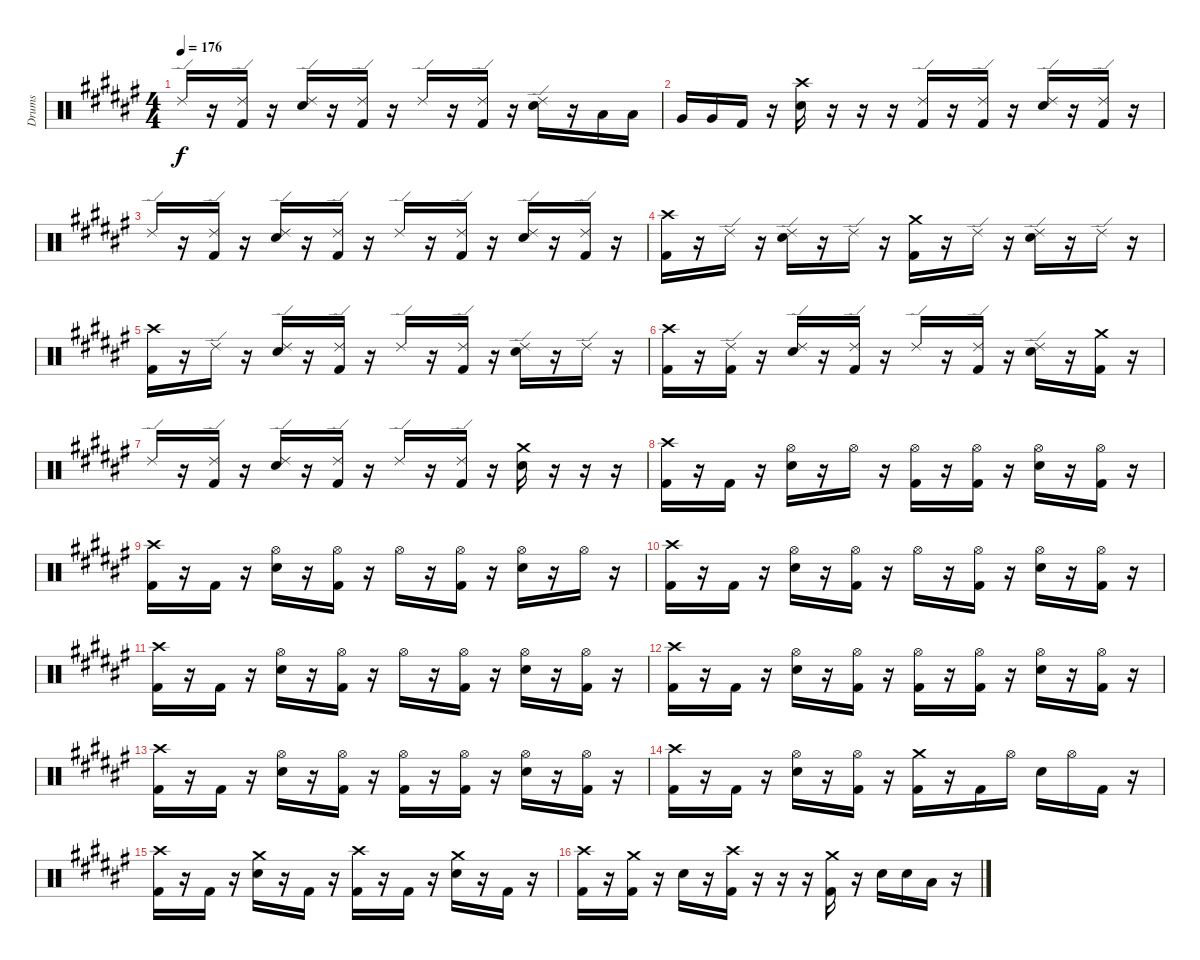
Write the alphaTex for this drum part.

\track ("Drums" "Drums") {instrument percussion}
\staff {score}
\articulation defaults
\ts (4 4)
\tempo 176
\clef neutral
\ks f# "Ride (edge) 2".16{dy f}
r.16 ("Ride (edge) 2" "Kick (hit) 2").16 r.16 ("Ride (edge) 2" "Electric Snare (hit)").16 r.16 ("Ride (edge) 2" "Kick (hit) 2").16 r.16 "Ride (edge) 2".16 r.16 ("Ride (edge) 2" "Kick (hit) 2").16 r.16 ("Ride (edge) 2" "Electric Snare (hit)").16 r.16 "Low Tom (hit)".16 "Low Tom (hit)".16 |
"Very Low Tom (hit)".16 "Very Low Tom (hit)".16 "Kick (hit) 2".16 r.16 ("Crash high (hit)" "Electric Snare (hit)").16 r.16 r.16 r.16 ("Ride (edge) 2" "Kick (hit) 2").16 r.16 ("Ride (edge) 2" "Kick (hit) 2").16 r.16 ("Ride (edge) 2" "Electric Snare (hit)").16 r.16 ("Ride (edge) 2" "Kick (hit) 2").16 r.16 |
"Ride (edge) 2".16 r.16 ("Ride (edge) 2" "Kick (hit) 2").16 r.16 ("Ride (edge) 2" "Electric Snare (hit)").16 r.16 ("Ride (edge) 2" "Kick (hit) 2").16 r.16 "Ride (edge) 2".16 r.16 ("Ride (edge) 2" "Kick (hit) 2").16 r.16 ("Ride (edge) 2" "Electric Snare (hit)").16 r.16 ("Ride (edge) 2" "Kick (hit) 2").16 r.16 |
("Crash high (hit)" "Kick (hit) 2").16 r.16 "Ride (edge) 2".16 r.16 ("Ride (edge) 2" "Electric Snare (hit)").16 r.16 "Ride (edge) 2".16 r.16 ("Crash medium (hit)" "Kick (hit) 2").16 r.16 "Ride (edge) 2".16 r.16 ("Ride (edge) 2" "Electric Snare (hit)").16 r.16 "Ride (edge) 2".16 r.16 |
("Crash high (hit)" "Kick (hit) 2").16 r.16 "Ride (edge) 2".16 r.16 ("Ride (edge) 2" "Electric Snare (hit)").16 r.16 ("Ride (edge) 2" "Kick (hit) 2").16 r.16 "Ride (edge) 2".16 r.16 ("Ride (edge) 2" "Kick (hit) 2").16 r.16 ("Ride (edge) 2" "Electric Snare (hit)").16 r.16 "Ride (edge) 2".16 r.16 |
("Crash high (hit)" "Kick (hit) 2").16 r.16 ("Ride (edge) 2" "Kick (hit) 2").16 r.16 ("Ride (edge) 2" "Electric Snare (hit)").16 r.16 ("Ride (edge) 2" "Kick (hit) 2").16 r.16 "Ride (edge) 2".16 r.16 ("Ride (edge) 2" "Kick (hit) 2").16 r.16 ("Ride (edge) 2" "Electric Snare (hit)").16 r.16 ("Crash medium (hit)" "Kick (hit) 2").16 r.16 |
"Ride (edge) 2".16 r.16 ("Ride (edge) 2" "Kick (hit) 2").16 r.16 ("Ride (edge) 2" "Electric Snare (hit)").16 r.16 ("Ride (edge) 2" "Kick (hit) 2").16 r.16 "Ride (edge) 2".16 r.16 ("Ride (edge) 2" "Kick (hit) 2").16 r.16 ("Crash medium (hit)" "Electric Snare (hit)").16 r.16 r.16 r.16 |
("Crash high (hit)" "Kick (hit) 2").16 r.16 "Kick (hit) 2".16 r.16 ("Hi-Hat (open)" "Electric Snare (hit)").16 r.16 "Hi-Hat (open)".16 r.16 ("Hi-Hat (open)" "Kick (hit) 2").16 r.16 ("Hi-Hat (open)" "Kick (hit) 2").16 r.16 ("Hi-Hat (open)" "Electric Snare (hit)").16 r.16 ("Hi-Hat (open)" "Kick (hit) 2").16 r.16 |
("Crash high (hit)" "Kick (hit) 2").16 r.16 "Kick (hit) 2".16 r.16 ("Hi-Hat (open)" "Electric Snare (hit)").16 r.16 ("Hi-Hat (open)" "Kick (hit) 2").16 r.16 "Hi-Hat (open)".16 r.16 ("Hi-Hat (open)" "Kick (hit) 2").16 r.16 ("Hi-Hat (open)" "Electric Snare (hit)").16 r.16 "Hi-Hat (open)".16 r.16 |
("Crash high (hit)" "Kick (hit) 2").16 r.16 "Kick (hit) 2".16 r.16 ("Hi-Hat (open)" "Electric Snare (hit)").16 r.16 ("Hi-Hat (open)" "Kick (hit) 2").16 r.16 "Hi-Hat (open)".16 r.16 ("Hi-Hat (open)" "Kick (hit) 2").16 r.16 ("Hi-Hat (open)" "Electric Snare (hit)").16 r.16 ("Hi-Hat (open)" "Kick (hit) 2").16 r.16 |
("Crash high (hit)" "Kick (hit) 2").16 r.16 "Kick (hit) 2".16 r.16 ("Hi-Hat (open)" "Electric Snare (hit)").16 r.16 ("Hi-Hat (open)" "Kick (hit) 2").16 r.16 "Hi-Hat (open)".16 r.16 ("Hi-Hat (open)" "Kick (hit) 2").16 r.16 ("Hi-Hat (open)" "Electric Snare (hit)").16 r.16 ("Hi-Hat (open)" "Kick (hit) 2").16 r.16 |
("Crash high (hit)" "Kick (hit) 2").16 r.16 "Kick (hit) 2".16 r.16 ("Hi-Hat (open)" "Electric Snare (hit)").16 r.16 ("Hi-Hat (open)" "Kick (hit) 2").16 r.16 ("Hi-Hat (open)" "Kick (hit) 2").16 r.16 ("Hi-Hat (open)" "Kick (hit) 2").16 r.16 ("Hi-Hat (open)" "Electric Snare (hit)").16 r.16 ("Hi-Hat (open)" "Kick (hit) 2").16 r.16 |
("Crash high (hit)" "Kick (hit) 2").16 r.16 "Kick (hit) 2".16 r.16 ("Hi-Hat (open)" "Electric Snare (hit)").16 r.16 ("Hi-Hat (open)" "Kick (hit) 2").16 r.16 ("Hi-Hat (open)" "Kick (hit) 2").16 r.16 ("Hi-Hat (open)" "Kick (hit) 2").16 r.16 ("Hi-Hat (open)" "Electric Snare (hit)").16 r.16 ("Hi-Hat (open)" "Kick (hit) 2").16 r.16 |
("Crash high (hit)" "Kick (hit) 2").16 r.16 "Kick (hit) 2".16 r.16 ("Hi-Hat (open)" "Electric Snare (hit)").16 r.16 ("Hi-Hat (open)" "Kick (hit) 2").16 r.16 ("Crash medium (hit)" "Kick (hit) 2").16 r.16 "Kick (hit) 2".16 "Hi-Hat (open)".16 "Electric Snare (hit)".16 "Hi-Hat (open)".16 "Kick (hit) 2".16 r.16 |
("Crash high (hit)" "Kick (hit) 2").16 r.16 "Kick (hit) 2".16 r.16 ("Crash medium (hit)" "Electric Snare (hit)").16 r.16 "Kick (hit) 2".16 r.16 ("Crash high (hit)" "Kick (hit) 2").16 r.16 "Kick (hit) 2".16 r.16 ("Crash medium (hit)" "Electric Snare (hit)").16 r.16 "Kick (hit) 2".16 r.16 |
("Crash high (hit)" "Kick (hit) 2").16 r.16 ("Crash medium (hit)" "Kick (hit) 2").16 r.16 "Electric Snare (hit)".16 r.16 ("Crash high (hit)" "Kick (hit) 2").16 r.16 r.16 r.16 ("Crash medium (hit)" "Kick (hit) 2").16 r.16 "Electric Snare (hit)".16 "Electric Snare (hit)".16 "Low Tom (hit)".16 r.16
